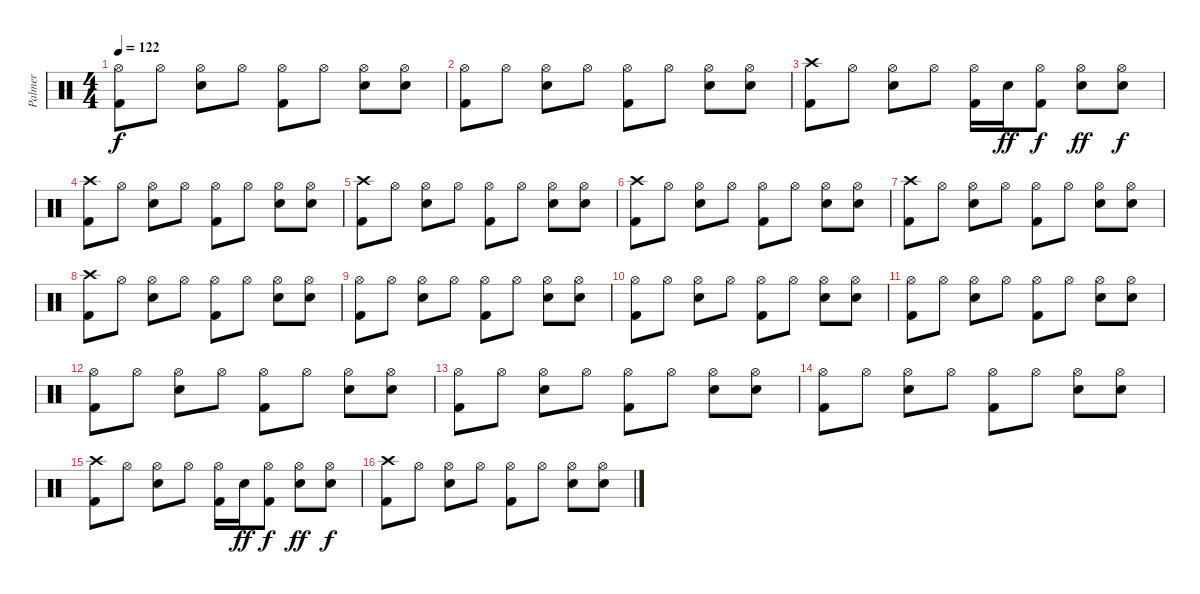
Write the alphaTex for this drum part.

\track ("Palmer" "Palmer") {instrument percussion}
\staff {score}
\articulation defaults
\ts (4 4)
\tempo 122
\clef neutral
\ks c
("Hi-Hat (open)" "Kick (hit) 2").8{dy f} "Hi-Hat (open)".8 ("Hi-Hat (open)" "Electric Snare (hit)").8 "Hi-Hat (open)".8 ("Hi-Hat (open)" "Kick (hit) 2").8 "Hi-Hat (open)".8 ("Hi-Hat (open)" "Electric Snare (hit)").8 ("Hi-Hat (open)" "Electric Snare (hit)").8 |
("Hi-Hat (open)" "Kick (hit) 2").8 "Hi-Hat (open)".8 ("Hi-Hat (open)" "Electric Snare (hit)").8 "Hi-Hat (open)".8 ("Hi-Hat (open)" "Kick (hit) 2").8 "Hi-Hat (open)".8 ("Hi-Hat (open)" "Electric Snare (hit)").8 ("Hi-Hat (open)" "Electric Snare (hit)").8 |
("Crash high (hit)" "Kick (hit) 2").8 "Hi-Hat (open)".8 ("Hi-Hat (open)" "Electric Snare (hit)").8 "Hi-Hat (open)".8 ("Hi-Hat (open)" "Kick (hit) 2").16 "Electric Snare (hit)".16{dy ff} ("Hi-Hat (open)" "Kick (hit) 2").8{dy f} ("Hi-Hat (open)" "Electric Snare (hit)").8{dy ff} ("Hi-Hat (open)" "Electric Snare (hit)").8{dy f} |
("Crash high (hit)" "Kick (hit) 2").8 "Hi-Hat (open)".8 ("Hi-Hat (open)" "Electric Snare (hit)").8 "Hi-Hat (open)".8 ("Hi-Hat (open)" "Kick (hit) 2").8 "Hi-Hat (open)".8 ("Hi-Hat (open)" "Electric Snare (hit)").8 ("Hi-Hat (open)" "Electric Snare (hit)").8 |
("Crash high (hit)" "Kick (hit) 2").8 "Hi-Hat (open)".8 ("Hi-Hat (open)" "Electric Snare (hit)").8 "Hi-Hat (open)".8 ("Hi-Hat (open)" "Kick (hit) 2").8 "Hi-Hat (open)".8 ("Hi-Hat (open)" "Electric Snare (hit)").8 ("Hi-Hat (open)" "Electric Snare (hit)").8 |
("Crash high (hit)" "Kick (hit) 2").8 "Hi-Hat (open)".8 ("Hi-Hat (open)" "Electric Snare (hit)").8 "Hi-Hat (open)".8 ("Hi-Hat (open)" "Kick (hit) 2").8 "Hi-Hat (open)".8 ("Hi-Hat (open)" "Electric Snare (hit)").8 ("Hi-Hat (open)" "Electric Snare (hit)").8 |
("Crash high (hit)" "Kick (hit) 2").8 "Hi-Hat (open)".8 ("Hi-Hat (open)" "Electric Snare (hit)").8 "Hi-Hat (open)".8 ("Hi-Hat (open)" "Kick (hit) 2").8 "Hi-Hat (open)".8 ("Hi-Hat (open)" "Electric Snare (hit)").8 ("Hi-Hat (open)" "Electric Snare (hit)").8 |
("Crash high (hit)" "Kick (hit) 2").8 "Hi-Hat (open)".8 ("Hi-Hat (open)" "Electric Snare (hit)").8 "Hi-Hat (open)".8 ("Hi-Hat (open)" "Kick (hit) 2").8 "Hi-Hat (open)".8 ("Hi-Hat (open)" "Electric Snare (hit)").8 ("Hi-Hat (open)" "Electric Snare (hit)").8 |
("Hi-Hat (open)" "Kick (hit) 2").8 "Hi-Hat (open)".8 ("Hi-Hat (open)" "Electric Snare (hit)").8 "Hi-Hat (open)".8 ("Hi-Hat (open)" "Kick (hit) 2").8 "Hi-Hat (open)".8 ("Hi-Hat (open)" "Electric Snare (hit)").8 ("Hi-Hat (open)" "Electric Snare (hit)").8 |
("Hi-Hat (open)" "Kick (hit) 2").8 "Hi-Hat (open)".8 ("Hi-Hat (open)" "Electric Snare (hit)").8 "Hi-Hat (open)".8 ("Hi-Hat (open)" "Kick (hit) 2").8 "Hi-Hat (open)".8 ("Hi-Hat (open)" "Electric Snare (hit)").8 ("Hi-Hat (open)" "Electric Snare (hit)").8 |
("Hi-Hat (open)" "Kick (hit) 2").8 "Hi-Hat (open)".8 ("Hi-Hat (open)" "Electric Snare (hit)").8 "Hi-Hat (open)".8 ("Hi-Hat (open)" "Kick (hit) 2").8 "Hi-Hat (open)".8 ("Hi-Hat (open)" "Electric Snare (hit)").8 ("Hi-Hat (open)" "Electric Snare (hit)").8 |
("Hi-Hat (open)" "Kick (hit) 2").8 "Hi-Hat (open)".8 ("Hi-Hat (open)" "Electric Snare (hit)").8 "Hi-Hat (open)".8 ("Hi-Hat (open)" "Kick (hit) 2").8 "Hi-Hat (open)".8 ("Hi-Hat (open)" "Electric Snare (hit)").8 ("Hi-Hat (open)" "Electric Snare (hit)").8 |
("Hi-Hat (open)" "Kick (hit) 2").8 "Hi-Hat (open)".8 ("Hi-Hat (open)" "Electric Snare (hit)").8 "Hi-Hat (open)".8 ("Hi-Hat (open)" "Kick (hit) 2").8 "Hi-Hat (open)".8 ("Hi-Hat (open)" "Electric Snare (hit)").8 ("Hi-Hat (open)" "Electric Snare (hit)").8 |
("Hi-Hat (open)" "Kick (hit) 2").8 "Hi-Hat (open)".8 ("Hi-Hat (open)" "Electric Snare (hit)").8 "Hi-Hat (open)".8 ("Hi-Hat (open)" "Kick (hit) 2").8 "Hi-Hat (open)".8 ("Hi-Hat (open)" "Electric Snare (hit)").8 ("Hi-Hat (open)" "Electric Snare (hit)").8 |
("Crash high (hit)" "Kick (hit) 2").8 "Hi-Hat (open)".8 ("Hi-Hat (open)" "Electric Snare (hit)").8 "Hi-Hat (open)".8 ("Hi-Hat (open)" "Kick (hit) 2").16 "Electric Snare (hit)".16{dy ff} ("Hi-Hat (open)" "Kick (hit) 2").8{dy f} ("Hi-Hat (open)" "Electric Snare (hit)").8{dy ff} ("Hi-Hat (open)" "Electric Snare (hit)").8{dy f} |
("Crash high (hit)" "Kick (hit) 2").8 "Hi-Hat (open)".8 ("Hi-Hat (open)" "Electric Snare (hit)").8 "Hi-Hat (open)".8 ("Hi-Hat (open)" "Kick (hit) 2").8 "Hi-Hat (open)".8 ("Hi-Hat (open)" "Electric Snare (hit)").8 ("Hi-Hat (open)" "Electric Snare (hit)").8
